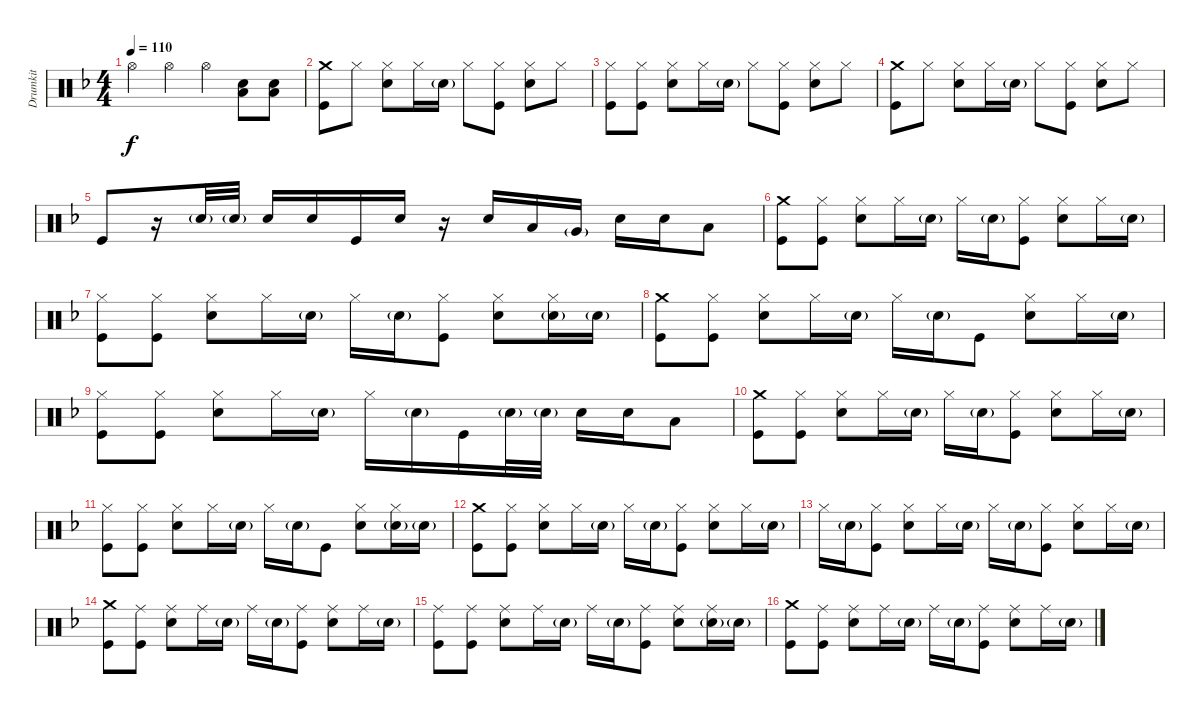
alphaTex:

\track ("Drumkit" "Drumkit") {instrument percussion}
\staff {score}
\articulation defaults
\ts (4 4)
\tempo 110
\clef neutral
\ks dminor "Hi-Hat (open)".4{dy f} "Hi-Hat (open)".4 "Hi-Hat (open)".4
("Snare (hit) 2" "Low Tom (hit)").8 ("Snare (hit) 2" "Low Tom (hit)").8 |
("Kick (hit)" "Crash medium (hit)").8 "Hi-Hat (closed)".8 ("Snare (hit) 2" "Hi-Hat (closed)").8 "Hi-Hat (closed)".16 "Snare (hit) 2"{g}.16 "Hi-Hat (closed)".8 ("Kick (hit)" "Hi-Hat (closed)").8 ("Snare (hit) 2" "Hi-Hat (closed)").8 "Hi-Hat (closed)".8 |
("Kick (hit)" "Hi-Hat (closed)").8 ("Kick (hit)" "Hi-Hat (closed)").8 ("Snare (hit) 2" "Hi-Hat (closed)").8 "Hi-Hat (closed)".16 "Snare (hit) 2"{g}.16 "Hi-Hat (closed)".8 ("Kick (hit)" "Hi-Hat (closed)").8 ("Snare (hit) 2" "Hi-Hat (closed)").8 "Hi-Hat (closed)".8 |
("Kick (hit)" "Crash medium (hit)").8 "Hi-Hat (closed)".8 ("Snare (hit) 2" "Hi-Hat (closed)").8 "Hi-Hat (closed)".16 "Snare (hit) 2"{g}.16 "Hi-Hat (closed)".8 ("Kick (hit)" "Hi-Hat (closed)").8 ("Snare (hit) 2" "Hi-Hat (closed)").8 "Hi-Hat (closed)".8 |
"Kick (hit)".8 r.16 "Snare (hit) 2"{g}.32 "Snare (hit) 2"{g}.32 "Snare (hit) 2".16 "Snare (hit) 2".16 "Kick (hit)".16 "Snare (hit) 2".16 r.16 "Snare (hit) 2".16 "Low Tom (hit)".16 "Very Low Tom (hit)"{g}.16 "Snare (hit) 2".16 "Snare (hit) 2".16 "Low Floor Tom (hit)".8 |
("Kick (hit)" "Crash medium (hit)").8 ("Hi-Hat (closed)" "Kick (hit)").8 ("Snare (hit) 2" "Hi-Hat (closed)").8 "Hi-Hat (closed)".16 "Snare (hit) 2"{g}.16 "Hi-Hat (closed)".16 "Snare (hit) 2"{g}.16 ("Kick (hit)" "Hi-Hat (closed)").8 ("Snare (hit) 2" "Hi-Hat (closed)").8 "Hi-Hat (closed)".16 "Snare (hit) 2"{g}.16 |
("Hi-Hat (closed)" "Kick (hit)").8 ("Hi-Hat (closed)" "Kick (hit)").8 ("Snare (hit) 2" "Hi-Hat (closed)").8 "Hi-Hat (closed)".16 "Snare (hit) 2"{g}.16 "Hi-Hat (closed)".16 "Snare (hit) 2"{g}.16 ("Kick (hit)" "Hi-Hat (closed)").8 ("Snare (hit) 2" "Hi-Hat (closed)").8 ("Hi-Hat (closed)" "Snare (hit) 2"{g}).16 "Snare (hit) 2"{g}.16 |
("Kick (hit)" "Crash medium (hit)").8 ("Hi-Hat (closed)" "Kick (hit)").8 ("Snare (hit) 2" "Hi-Hat (closed)").8 "Hi-Hat (closed)".16 "Snare (hit) 2"{g}.16 "Hi-Hat (closed)".16 "Snare (hit) 2"{g}.16 "Kick (hit)".8 ("Snare (hit) 2" "Hi-Hat (closed)").8 "Hi-Hat (closed)".16 "Snare (hit) 2"{g}.16 |
("Hi-Hat (closed)" "Kick (hit)").8 ("Hi-Hat (closed)" "Kick (hit)").8 ("Snare (hit) 2" "Hi-Hat (closed)").8 "Hi-Hat (closed)".16 "Snare (hit) 2"{g}.16 "Hi-Hat (closed)".16 "Snare (hit) 2"{g}.16 "Kick (hit)".16 "Snare (hit) 2"{g}.32 "Snare (hit) 2"{g}.32 "Snare (hit) 2".16 "Snare (hit) 2".16 "Low Tom (hit)".8 |
("Kick (hit)" "Crash medium (hit)").8 ("Hi-Hat (closed)" "Kick (hit)").8 ("Snare (hit) 2" "Hi-Hat (closed)").8 "Hi-Hat (closed)".16 "Snare (hit) 2"{g}.16 "Hi-Hat (closed)".16 "Snare (hit) 2"{g}.16 ("Kick (hit)" "Hi-Hat (closed)").8 ("Snare (hit) 2" "Hi-Hat (closed)").8 "Hi-Hat (closed)".16 "Snare (hit) 2"{g}.16 |
("Hi-Hat (closed)" "Kick (hit)").8 ("Hi-Hat (closed)" "Kick (hit)").8 ("Snare (hit) 2" "Hi-Hat (closed)").8 "Hi-Hat (closed)".16 "Snare (hit) 2"{g}.16 "Hi-Hat (closed)".16 "Snare (hit) 2"{g}.16 "Kick (hit)".8 ("Snare (hit) 2" "Hi-Hat (closed)").8 ("Hi-Hat (closed)" "Snare (hit) 2"{g}).16 "Snare (hit) 2"{g}.16 |
("Kick (hit)" "Crash medium (hit)").8 ("Hi-Hat (closed)" "Kick (hit)").8 ("Snare (hit) 2" "Hi-Hat (closed)").8 "Hi-Hat (closed)".16 "Snare (hit) 2"{g}.16 "Hi-Hat (closed)".16 "Snare (hit) 2"{g}.16 ("Kick (hit)" "Hi-Hat (closed)").8 ("Snare (hit) 2" "Hi-Hat (closed)").8 "Hi-Hat (closed)".16 "Snare (hit) 2"{g}.16 |
"Hi-Hat (closed)".16 "Snare (hit) 2"{g}.16 ("Kick (hit)" "Hi-Hat (closed)").8 ("Snare (hit) 2" "Hi-Hat (closed)").8 "Hi-Hat (closed)".16 "Snare (hit) 2"{g}.16 "Hi-Hat (closed)".16 "Snare (hit) 2"{g}.16 ("Kick (hit)" "Hi-Hat (closed)").8 ("Snare (hit) 2" "Hi-Hat (closed)").8 "Hi-Hat (closed)".16 "Snare (hit) 2"{g}.16 |
("Kick (hit)" "Crash medium (hit)").8 ("Kick (hit)" "Ride (middle)").8 ("Snare (hit) 2" "Ride (middle)").8 "Ride (middle)".16 "Snare (hit) 2"{g}.16 "Ride (middle)".16 "Snare (hit) 2"{g}.16 ("Kick (hit)" "Ride (middle)").8 ("Snare (hit) 2" "Ride (middle)").8 "Ride (middle)".16 "Snare (hit) 2"{g}.16 |
("Kick (hit)" "Ride (middle)").8 ("Kick (hit)" "Ride (middle)").8 ("Snare (hit) 2" "Ride (middle)").8 "Ride (middle)".16 "Snare (hit) 2"{g}.16 "Ride (middle)".16 "Snare (hit) 2"{g}.16 ("Kick (hit)" "Ride (middle)").8 ("Snare (hit) 2" "Ride (middle)").8 ("Snare (hit) 2"{g} "Ride (middle)").16 "Snare (hit) 2"{g}.16 |
("Kick (hit)" "Crash medium (hit)").8 ("Kick (hit)" "Ride (middle)").8 ("Snare (hit) 2" "Ride (middle)").8 "Ride (middle)".16 "Snare (hit) 2"{g}.16 "Ride (middle)".16 "Snare (hit) 2"{g}.16 ("Kick (hit)" "Ride (middle)").8 ("Snare (hit) 2" "Ride (middle)").8 "Ride (middle)".16 "Snare (hit) 2"{g}.16
